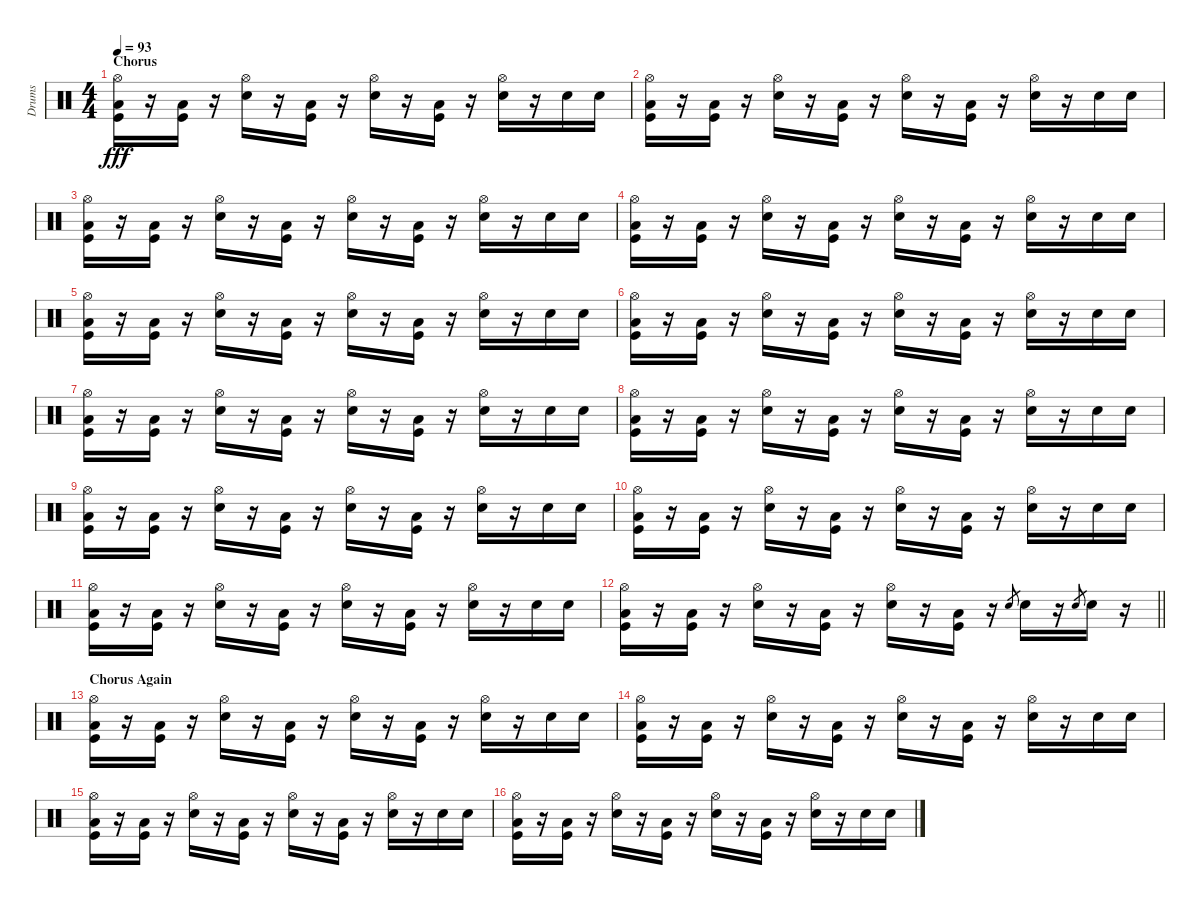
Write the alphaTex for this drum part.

\track ("Drums" "Drums") {instrument percussion}
\staff {score}
\articulation defaults
\ts (4 4)
\section ("" "Chorus")
\tempo 93
\clef neutral
\ks c
("Hi-Hat (open)" "Low Floor Tom (hit)" "Kick (hit)").16{dy fff} r.16 ("Low Floor Tom (hit)" "Kick (hit)").16 r.16 ("Hi-Hat (open)" "Electric Snare (hit)").16 r.16 ("Low Floor Tom (hit)" "Kick (hit)").16 r.16 ("Hi-Hat (open)" "Electric Snare (hit)").16 r.16 ("Low Floor Tom (hit)" "Kick (hit)").16 r.16 ("Hi-Hat (open)" "Electric Snare (hit)").16 r.16 "Electric Snare (hit)".16 "Electric Snare (hit)".16 |
("Hi-Hat (open)" "Low Floor Tom (hit)" "Kick (hit)").16 r.16 ("Low Floor Tom (hit)" "Kick (hit)").16 r.16 ("Hi-Hat (open)" "Electric Snare (hit)").16 r.16 ("Low Floor Tom (hit)" "Kick (hit)").16 r.16 ("Hi-Hat (open)" "Electric Snare (hit)").16 r.16 ("Low Floor Tom (hit)" "Kick (hit)").16 r.16 ("Hi-Hat (open)" "Electric Snare (hit)").16 r.16 "Electric Snare (hit)".16 "Electric Snare (hit)".16 |
("Hi-Hat (open)" "Low Floor Tom (hit)" "Kick (hit)").16 r.16 ("Low Floor Tom (hit)" "Kick (hit)").16 r.16 ("Hi-Hat (open)" "Electric Snare (hit)").16 r.16 ("Low Floor Tom (hit)" "Kick (hit)").16 r.16 ("Hi-Hat (open)" "Electric Snare (hit)").16 r.16 ("Low Floor Tom (hit)" "Kick (hit)").16 r.16 ("Hi-Hat (open)" "Electric Snare (hit)").16 r.16 "Electric Snare (hit)".16 "Electric Snare (hit)".16 |
("Hi-Hat (open)" "Low Floor Tom (hit)" "Kick (hit)").16 r.16 ("Low Floor Tom (hit)" "Kick (hit)").16 r.16 ("Hi-Hat (open)" "Electric Snare (hit)").16 r.16 ("Low Floor Tom (hit)" "Kick (hit)").16 r.16 ("Hi-Hat (open)" "Electric Snare (hit)").16 r.16 ("Low Floor Tom (hit)" "Kick (hit)").16 r.16 ("Hi-Hat (open)" "Electric Snare (hit)").16 r.16 "Electric Snare (hit)".16 "Electric Snare (hit)".16 |
("Hi-Hat (open)" "Low Floor Tom (hit)" "Kick (hit)").16 r.16 ("Low Floor Tom (hit)" "Kick (hit)").16 r.16 ("Hi-Hat (open)" "Electric Snare (hit)").16 r.16 ("Low Floor Tom (hit)" "Kick (hit)").16 r.16 ("Hi-Hat (open)" "Electric Snare (hit)").16 r.16 ("Low Floor Tom (hit)" "Kick (hit)").16 r.16 ("Hi-Hat (open)" "Electric Snare (hit)").16 r.16 "Electric Snare (hit)".16 "Electric Snare (hit)".16 |
("Hi-Hat (open)" "Low Floor Tom (hit)" "Kick (hit)").16 r.16 ("Low Floor Tom (hit)" "Kick (hit)").16 r.16 ("Hi-Hat (open)" "Electric Snare (hit)").16 r.16 ("Low Floor Tom (hit)" "Kick (hit)").16 r.16 ("Hi-Hat (open)" "Electric Snare (hit)").16 r.16 ("Low Floor Tom (hit)" "Kick (hit)").16 r.16 ("Hi-Hat (open)" "Electric Snare (hit)").16 r.16 "Electric Snare (hit)".16 "Electric Snare (hit)".16 |
("Hi-Hat (open)" "Low Floor Tom (hit)" "Kick (hit)").16 r.16 ("Low Floor Tom (hit)" "Kick (hit)").16 r.16 ("Hi-Hat (open)" "Electric Snare (hit)").16 r.16 ("Low Floor Tom (hit)" "Kick (hit)").16 r.16 ("Hi-Hat (open)" "Electric Snare (hit)").16 r.16 ("Low Floor Tom (hit)" "Kick (hit)").16 r.16 ("Hi-Hat (open)" "Electric Snare (hit)").16 r.16 "Electric Snare (hit)".16 "Electric Snare (hit)".16 |
("Hi-Hat (open)" "Low Floor Tom (hit)" "Kick (hit)").16 r.16 ("Low Floor Tom (hit)" "Kick (hit)").16 r.16 ("Hi-Hat (open)" "Electric Snare (hit)").16 r.16 ("Low Floor Tom (hit)" "Kick (hit)").16 r.16 ("Hi-Hat (open)" "Electric Snare (hit)").16 r.16 ("Low Floor Tom (hit)" "Kick (hit)").16 r.16 ("Hi-Hat (open)" "Electric Snare (hit)").16 r.16 "Electric Snare (hit)".16 "Electric Snare (hit)".16 |
("Hi-Hat (open)" "Low Floor Tom (hit)" "Kick (hit)").16 r.16 ("Low Floor Tom (hit)" "Kick (hit)").16 r.16 ("Hi-Hat (open)" "Electric Snare (hit)").16 r.16 ("Low Floor Tom (hit)" "Kick (hit)").16 r.16 ("Hi-Hat (open)" "Electric Snare (hit)").16 r.16 ("Low Floor Tom (hit)" "Kick (hit)").16 r.16 ("Hi-Hat (open)" "Electric Snare (hit)").16 r.16 "Electric Snare (hit)".16 "Electric Snare (hit)".16 |
("Hi-Hat (open)" "Low Floor Tom (hit)" "Kick (hit)").16 r.16 ("Low Floor Tom (hit)" "Kick (hit)").16 r.16 ("Hi-Hat (open)" "Electric Snare (hit)").16 r.16 ("Low Floor Tom (hit)" "Kick (hit)").16 r.16 ("Hi-Hat (open)" "Electric Snare (hit)").16 r.16 ("Low Floor Tom (hit)" "Kick (hit)").16 r.16 ("Hi-Hat (open)" "Electric Snare (hit)").16 r.16 "Electric Snare (hit)".16 "Electric Snare (hit)".16 |
("Hi-Hat (open)" "Low Floor Tom (hit)" "Kick (hit)").16 r.16 ("Low Floor Tom (hit)" "Kick (hit)").16 r.16 ("Hi-Hat (open)" "Electric Snare (hit)").16 r.16 ("Low Floor Tom (hit)" "Kick (hit)").16 r.16 ("Hi-Hat (open)" "Electric Snare (hit)").16 r.16 ("Low Floor Tom (hit)" "Kick (hit)").16 r.16 ("Hi-Hat (open)" "Electric Snare (hit)").16 r.16 "Electric Snare (hit)".16 "Electric Snare (hit)".16 |
\barLineRight lightlight
("Hi-Hat (open)" "Low Floor Tom (hit)" "Kick (hit)").16 r.16 ("Low Floor Tom (hit)" "Kick (hit)").16 r.16 ("Hi-Hat (open)" "Electric Snare (hit)").16 r.16 ("Low Floor Tom (hit)" "Kick (hit)").16 r.16 ("Hi-Hat (open)" "Electric Snare (hit)").16 r.16 ("Low Floor Tom (hit)" "Kick (hit)").16 r.16 "Electric Snare (hit)".8{gr} "Electric Snare (hit)".16 r.16 "Electric Snare (hit)".8{gr} "Electric Snare (hit)".16 r.16 |
\section ("" "Chorus Again")
("Hi-Hat (open)" "Low Floor Tom (hit)" "Kick (hit)").16 r.16 ("Low Floor Tom (hit)" "Kick (hit)").16 r.16 ("Hi-Hat (open)" "Electric Snare (hit)").16 r.16 ("Low Floor Tom (hit)" "Kick (hit)").16 r.16 ("Hi-Hat (open)" "Electric Snare (hit)").16 r.16 ("Low Floor Tom (hit)" "Kick (hit)").16 r.16 ("Hi-Hat (open)" "Electric Snare (hit)").16 r.16 "Electric Snare (hit)".16 "Electric Snare (hit)".16 |
("Hi-Hat (open)" "Low Floor Tom (hit)" "Kick (hit)").16 r.16 ("Low Floor Tom (hit)" "Kick (hit)").16 r.16 ("Hi-Hat (open)" "Electric Snare (hit)").16 r.16 ("Low Floor Tom (hit)" "Kick (hit)").16 r.16 ("Hi-Hat (open)" "Electric Snare (hit)").16 r.16 ("Low Floor Tom (hit)" "Kick (hit)").16 r.16 ("Hi-Hat (open)" "Electric Snare (hit)").16 r.16 "Electric Snare (hit)".16 "Electric Snare (hit)".16 |
("Hi-Hat (open)" "Low Floor Tom (hit)" "Kick (hit)").16 r.16 ("Low Floor Tom (hit)" "Kick (hit)").16 r.16 ("Hi-Hat (open)" "Electric Snare (hit)").16 r.16 ("Low Floor Tom (hit)" "Kick (hit)").16 r.16 ("Hi-Hat (open)" "Electric Snare (hit)").16 r.16 ("Low Floor Tom (hit)" "Kick (hit)").16 r.16 ("Hi-Hat (open)" "Electric Snare (hit)").16 r.16 "Electric Snare (hit)".16 "Electric Snare (hit)".16 |
("Hi-Hat (open)" "Low Floor Tom (hit)" "Kick (hit)").16 r.16 ("Low Floor Tom (hit)" "Kick (hit)").16 r.16 ("Hi-Hat (open)" "Electric Snare (hit)").16 r.16 ("Low Floor Tom (hit)" "Kick (hit)").16 r.16 ("Hi-Hat (open)" "Electric Snare (hit)").16 r.16 ("Low Floor Tom (hit)" "Kick (hit)").16 r.16 ("Hi-Hat (open)" "Electric Snare (hit)").16 r.16 "Electric Snare (hit)".16 "Electric Snare (hit)".16
